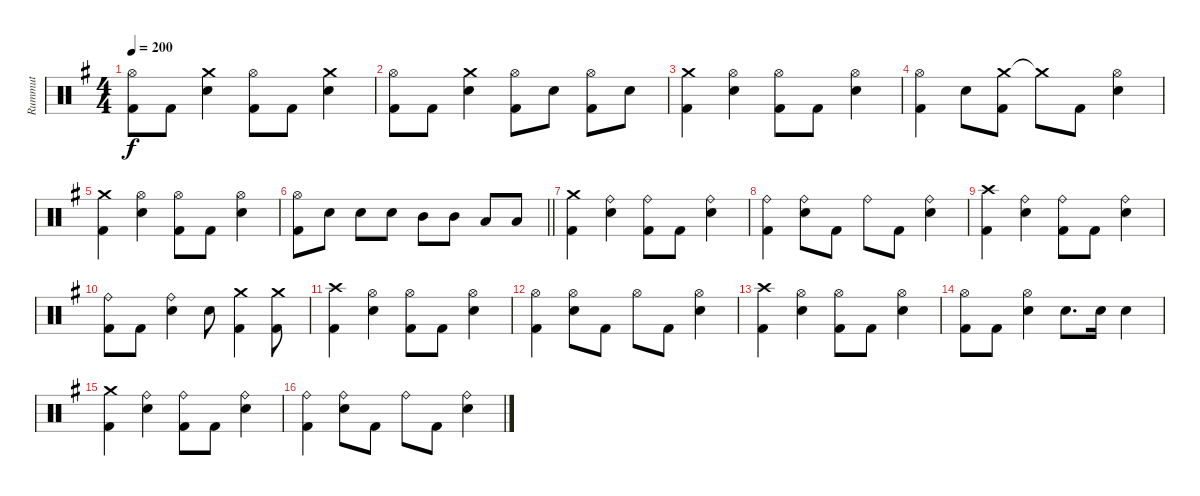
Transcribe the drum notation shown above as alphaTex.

\track ("Rummut" "Rummut") {instrument percussion}
\staff {score}
\articulation defaults
\ts (4 4)
\tempo 200
\clef neutral
\ks g
("Hi-Hat (open)" "Kick (hit) 2").8{dy f} "Kick (hit) 2".8 ("Crash medium (hit)" "Snare (hit) 2").4 ("Hi-Hat (open)" "Kick (hit) 2").8 "Kick (hit) 2".8 ("Crash medium (hit)" "Snare (hit) 2").4 |
("Hi-Hat (open)" "Kick (hit) 2").8 "Kick (hit) 2".8 ("Crash medium (hit)" "Snare (hit) 2").4 ("Hi-Hat (open)" "Kick (hit) 2").8 "Snare (hit) 2".8 ("Hi-Hat (open)" "Kick (hit) 2").8 "Snare (hit) 2".8 |
("Crash medium (hit)" "Kick (hit) 2").4 ("Hi-Hat (open)" "Snare (hit) 2").4 ("Hi-Hat (open)" "Kick (hit) 2").8 "Kick (hit) 2".8 ("Hi-Hat (open)" "Snare (hit) 2").4 |
("Hi-Hat (open)" "Kick (hit) 2").4 "Snare (hit) 2".8 ("Crash medium (hit)" "Kick (hit) 2").8 "Crash medium (hit)"{t}.8 "Kick (hit) 2".8 ("Hi-Hat (open)" "Snare (hit) 2").4 |
("Crash medium (hit)" "Kick (hit) 2").4 ("Hi-Hat (open)" "Snare (hit) 2").4 ("Hi-Hat (open)" "Kick (hit) 2").8 "Kick (hit) 2".8 ("Hi-Hat (open)" "Snare (hit) 2").4 |
\barLineRight lightlight
("Hi-Hat (open)" "Kick (hit) 2").8 "Snare (hit) 2".8 "Snare (hit) 2".8 "Snare (hit) 2".8 "Mid Tom (hit)".8 "Mid Tom (hit)".8 "Low Tom (hit)".8 "Low Tom (hit)".8 |
("Crash medium (hit)" "Kick (hit) 2").4 ("Ride (bell)" "Snare (hit) 2").4 ("Ride (bell)" "Kick (hit) 2").8 "Kick (hit) 2".8 ("Ride (bell)" "Snare (hit) 2").4 |
("Ride (bell)" "Kick (hit) 2").4 ("Ride (bell)" "Snare (hit) 2").8 "Kick (hit) 2".8 "Ride (bell)".8 "Kick (hit) 2".8 ("Ride (bell)" "Snare (hit) 2").4 |
("Crash high (hit)" "Kick (hit) 2").4 ("Ride (bell)" "Snare (hit) 2").4 ("Ride (bell)" "Kick (hit) 2").8 "Kick (hit) 2".8 ("Ride (bell)" "Snare (hit) 2").4 |
("Ride (bell)" "Kick (hit) 2").8 "Kick (hit) 2".8 ("Ride (bell)" "Snare (hit) 2").4 "Snare (hit) 2".8 ("Crash medium (hit)" "Kick (hit) 2").4 ("Crash medium (hit)" "Kick (hit) 2").8 |
("Crash high (hit)" "Kick (hit) 2").4 ("Hi-Hat (open)" "Snare (hit) 2").4 ("Hi-Hat (open)" "Kick (hit) 2").8 "Kick (hit) 2".8 ("Hi-Hat (open)" "Snare (hit) 2").4 |
("Hi-Hat (open)" "Kick (hit) 2").4 ("Hi-Hat (open)" "Snare (hit) 2").8 "Kick (hit) 2".8 "Hi-Hat (open)".8 "Kick (hit) 2".8 ("Hi-Hat (open)" "Snare (hit) 2").4 |
("Crash high (hit)" "Kick (hit) 2").4 ("Hi-Hat (open)" "Snare (hit) 2").4 ("Hi-Hat (open)" "Kick (hit) 2").8 "Kick (hit) 2".8 ("Hi-Hat (open)" "Snare (hit) 2").4 |
("Hi-Hat (open)" "Kick (hit) 2").8 "Kick (hit) 2".8 ("Hi-Hat (open)" "Snare (hit) 2").4 "Snare (hit) 2".8{d} "Snare (hit) 2".16 "Snare (hit) 2".4 |
("Crash medium (hit)" "Kick (hit) 2").4 ("Ride (bell)" "Snare (hit) 2").4 ("Ride (bell)" "Kick (hit) 2").8 "Kick (hit) 2".8 ("Ride (bell)" "Snare (hit) 2").4 |
("Ride (bell)" "Kick (hit) 2").4 ("Ride (bell)" "Snare (hit) 2").8 "Kick (hit) 2".8 "Ride (bell)".8 "Kick (hit) 2".8 ("Ride (bell)" "Snare (hit) 2").4
